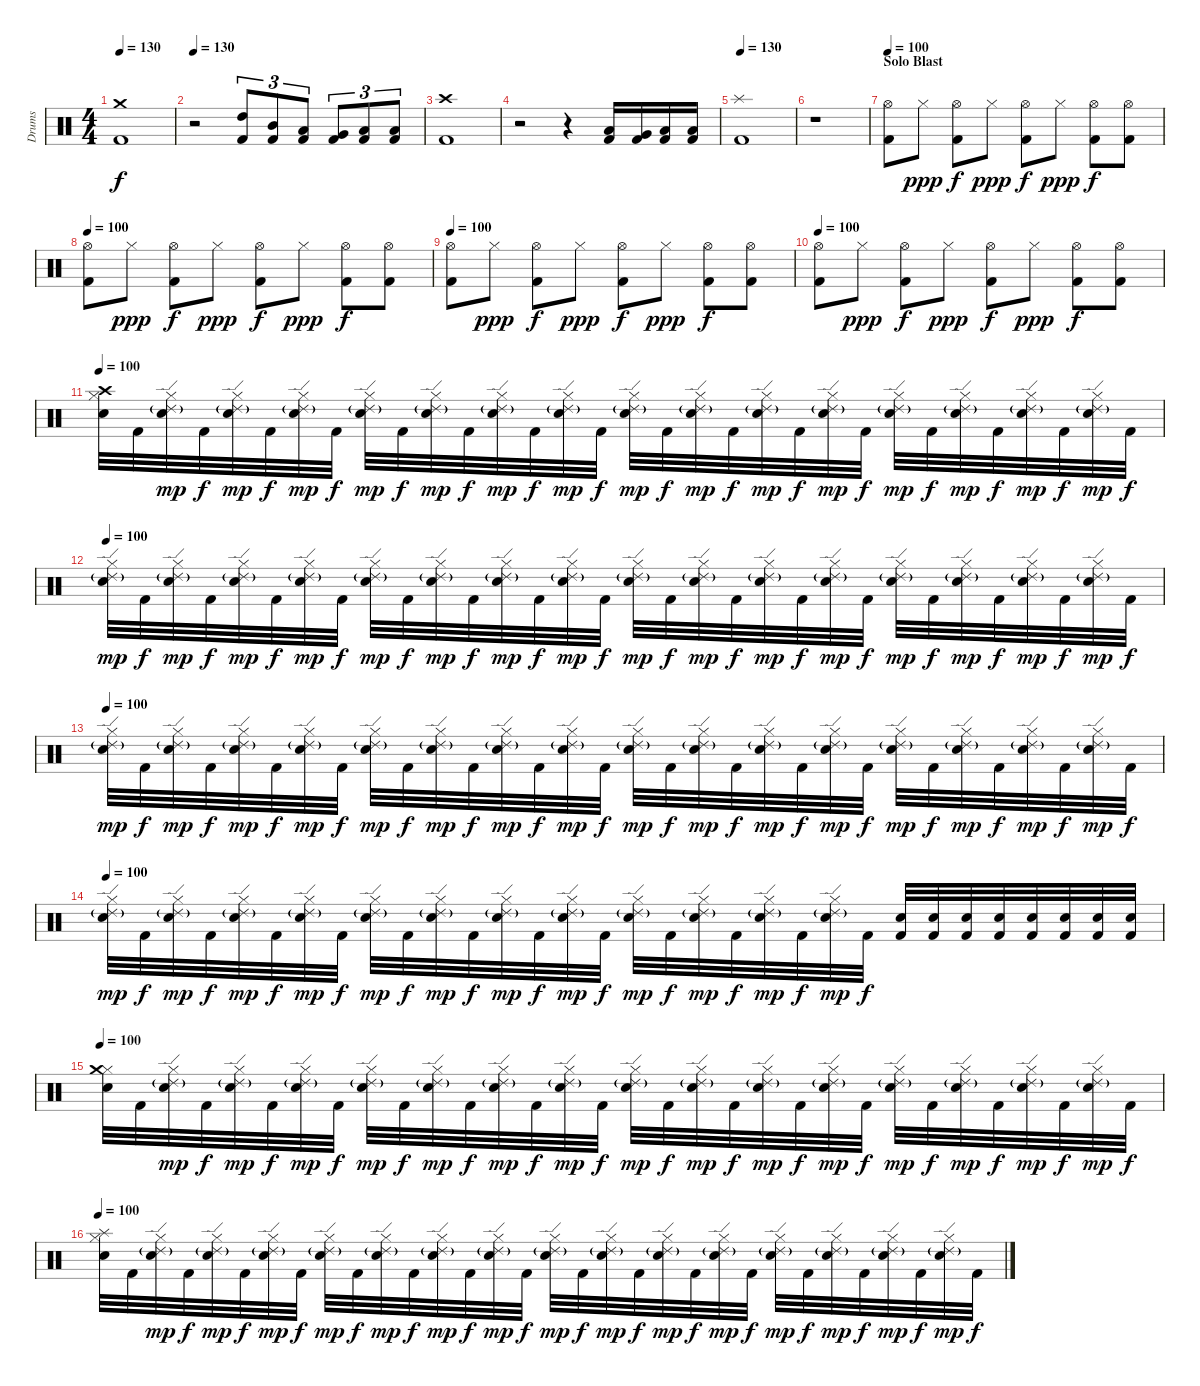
\track ("Drums" "Drums") {instrument percussion}
\staff {score}
\articulation defaults
\ts (4 4)
\tempo 130
\clef neutral
\ks c
("Kick (hit) 2" "Crash medium (hit)").1{dy f} |
\tempo 130
r.2 ("Kick (hit) 2" "High Tom (hit)").8{tu (3 2)} ("Kick (hit) 2" "Mid Tom (hit)").8{tu (3 2)} ("Kick (hit) 2" "Low Tom (hit)").8{tu (3 2)} ("Kick (hit) 2" "Very Low Tom (hit)").8{tu (3 2)} ("Kick (hit) 2" "Low Floor Tom (hit)").8{tu (3 2)} ("Kick (hit) 2" "Low Floor Tom (hit)").8{tu (3 2)} |
("Kick (hit) 2" "Crash high (hit)").1 |
r.2 r.4 ("Kick (hit) 2" "Low Tom (hit)").16 ("Kick (hit) 2" "Very Low Tom (hit)").16 ("Kick (hit) 2" "Low Floor Tom (hit)").16 ("Kick (hit) 2" "Low Floor Tom (hit)").16 |
\tempo 130
("Kick (hit) 2" "Splash (hit)").1 |
r.1 |
\section ("" "Solo Blast")
\tempo 100
("Kick (hit) 2" "Hi-Hat (open)").8 "Hi-Hat (closed)".8{dy ppp} ("Kick (hit) 2" "Hi-Hat (open)").8{dy f} "Hi-Hat (closed)".8{dy ppp} ("Kick (hit) 2" "Hi-Hat (open)").8{dy f} "Hi-Hat (closed)".8{dy ppp} ("Kick (hit) 2" "Hi-Hat (open)").8{dy f} ("Kick (hit) 2" "Hi-Hat (open)").8 |
\tempo 100
("Kick (hit) 2" "Hi-Hat (open)").8 "Hi-Hat (closed)".8{dy ppp} ("Kick (hit) 2" "Hi-Hat (open)").8{dy f} "Hi-Hat (closed)".8{dy ppp} ("Kick (hit) 2" "Hi-Hat (open)").8{dy f} "Hi-Hat (closed)".8{dy ppp} ("Kick (hit) 2" "Hi-Hat (open)").8{dy f} ("Kick (hit) 2" "Hi-Hat (open)").8 |
\tempo 100
("Kick (hit) 2" "Hi-Hat (open)").8 "Hi-Hat (closed)".8{dy ppp} ("Kick (hit) 2" "Hi-Hat (open)").8{dy f} "Hi-Hat (closed)".8{dy ppp} ("Kick (hit) 2" "Hi-Hat (open)").8{dy f} "Hi-Hat (closed)".8{dy ppp} ("Kick (hit) 2" "Hi-Hat (open)").8{dy f} ("Kick (hit) 2" "Hi-Hat (open)").8 |
\tempo 100
("Kick (hit) 2" "Hi-Hat (open)").8 "Hi-Hat (closed)".8{dy ppp} ("Kick (hit) 2" "Hi-Hat (open)").8{dy f} "Hi-Hat (closed)".8{dy ppp} ("Kick (hit) 2" "Hi-Hat (open)").8{dy f} "Hi-Hat (closed)".8{dy ppp} ("Kick (hit) 2" "Hi-Hat (open)").8{dy f} ("Kick (hit) 2" "Hi-Hat (open)").8 |
\section ("" "")
\tempo 100
("Snare (hit) 2" "Hi-Hat (closed)" "Crash high (hit)").32 "Kick (hit) 2".32 ("Snare (hit) 2" "Hi-Hat (closed)" "Ride (edge) 2"{g}).32{dy mp} "Kick (hit) 2".32{dy f} ("Snare (hit) 2" "Hi-Hat (closed)" "Ride (edge) 2"{g}).32{dy mp} "Kick (hit) 2".32{dy f} ("Snare (hit) 2" "Hi-Hat (closed)" "Ride (edge) 2"{g}).32{dy mp} "Kick (hit) 2".32{dy f} ("Snare (hit) 2" "Hi-Hat (closed)" "Ride (edge) 2"{g}).32{dy mp} "Kick (hit) 2".32{dy f} ("Snare (hit) 2" "Hi-Hat (closed)" "Ride (edge) 2"{g}).32{dy mp} "Kick (hit) 2".32{dy f} ("Snare (hit) 2" "Hi-Hat (closed)" "Ride (edge) 2"{g}).32{dy mp} "Kick (hit) 2".32{dy f} ("Snare (hit) 2" "Hi-Hat (closed)" "Ride (edge) 2"{g}).32{dy mp} "Kick (hit) 2".32{dy f} ("Snare (hit) 2" "Hi-Hat (closed)" "Ride (edge) 2"{g}).32{dy mp} "Kick (hit) 2".32{dy f} ("Snare (hit) 2" "Hi-Hat (closed)" "Ride (edge) 2"{g}).32{dy mp} "Kick (hit) 2".32{dy f} ("Snare (hit) 2" "Hi-Hat (closed)" "Ride (edge) 2"{g}).32{dy mp} "Kick (hit) 2".32{dy f} ("Snare (hit) 2" "Hi-Hat (closed)" "Ride (edge) 2"{g}).32{dy mp} "Kick (hit) 2".32{dy f} ("Snare (hit) 2" "Hi-Hat (closed)" "Ride (edge) 2"{g}).32{dy mp} "Kick (hit) 2".32{dy f} ("Snare (hit) 2" "Hi-Hat (closed)" "Ride (edge) 2"{g}).32{dy mp} "Kick (hit) 2".32{dy f} ("Snare (hit) 2" "Hi-Hat (closed)" "Ride (edge) 2"{g}).32{dy mp} "Kick (hit) 2".32{dy f} ("Snare (hit) 2" "Hi-Hat (closed)" "Ride (edge) 2"{g}).32{dy mp} "Kick (hit) 2".32{dy f} |
\tempo 100
("Snare (hit) 2" "Hi-Hat (closed)" "Ride (edge) 2"{g}).32{dy mp} "Kick (hit) 2".32{dy f} ("Snare (hit) 2" "Hi-Hat (closed)" "Ride (edge) 2"{g}).32{dy mp} "Kick (hit) 2".32{dy f} ("Snare (hit) 2" "Hi-Hat (closed)" "Ride (edge) 2"{g}).32{dy mp} "Kick (hit) 2".32{dy f} ("Snare (hit) 2" "Hi-Hat (closed)" "Ride (edge) 2"{g}).32{dy mp} "Kick (hit) 2".32{dy f} ("Snare (hit) 2" "Hi-Hat (closed)" "Ride (edge) 2"{g}).32{dy mp} "Kick (hit) 2".32{dy f} ("Snare (hit) 2" "Hi-Hat (closed)" "Ride (edge) 2"{g}).32{dy mp} "Kick (hit) 2".32{dy f} ("Snare (hit) 2" "Hi-Hat (closed)" "Ride (edge) 2"{g}).32{dy mp} "Kick (hit) 2".32{dy f} ("Snare (hit) 2" "Hi-Hat (closed)" "Ride (edge) 2"{g}).32{dy mp} "Kick (hit) 2".32{dy f} ("Snare (hit) 2" "Hi-Hat (closed)" "Ride (edge) 2"{g}).32{dy mp} "Kick (hit) 2".32{dy f} ("Snare (hit) 2" "Hi-Hat (closed)" "Ride (edge) 2"{g}).32{dy mp} "Kick (hit) 2".32{dy f} ("Snare (hit) 2" "Hi-Hat (closed)" "Ride (edge) 2"{g}).32{dy mp} "Kick (hit) 2".32{dy f} ("Snare (hit) 2" "Hi-Hat (closed)" "Ride (edge) 2"{g}).32{dy mp} "Kick (hit) 2".32{dy f} ("Snare (hit) 2" "Hi-Hat (closed)" "Ride (edge) 2"{g}).32{dy mp} "Kick (hit) 2".32{dy f} ("Snare (hit) 2" "Hi-Hat (closed)" "Ride (edge) 2"{g}).32{dy mp} "Kick (hit) 2".32{dy f} ("Snare (hit) 2" "Hi-Hat (closed)" "Ride (edge) 2"{g}).32{dy mp} "Kick (hit) 2".32{dy f} ("Snare (hit) 2" "Hi-Hat (closed)" "Ride (edge) 2"{g}).32{dy mp} "Kick (hit) 2".32{dy f} |
\tempo 100
("Snare (hit) 2" "Hi-Hat (closed)" "Ride (edge) 2"{g}).32{dy mp} "Kick (hit) 2".32{dy f} ("Snare (hit) 2" "Hi-Hat (closed)" "Ride (edge) 2"{g}).32{dy mp} "Kick (hit) 2".32{dy f} ("Snare (hit) 2" "Hi-Hat (closed)" "Ride (edge) 2"{g}).32{dy mp} "Kick (hit) 2".32{dy f} ("Snare (hit) 2" "Hi-Hat (closed)" "Ride (edge) 2"{g}).32{dy mp} "Kick (hit) 2".32{dy f} ("Snare (hit) 2" "Hi-Hat (closed)" "Ride (edge) 2"{g}).32{dy mp} "Kick (hit) 2".32{dy f} ("Snare (hit) 2" "Hi-Hat (closed)" "Ride (edge) 2"{g}).32{dy mp} "Kick (hit) 2".32{dy f} ("Snare (hit) 2" "Hi-Hat (closed)" "Ride (edge) 2"{g}).32{dy mp} "Kick (hit) 2".32{dy f} ("Snare (hit) 2" "Hi-Hat (closed)" "Ride (edge) 2"{g}).32{dy mp} "Kick (hit) 2".32{dy f} ("Snare (hit) 2" "Hi-Hat (closed)" "Ride (edge) 2"{g}).32{dy mp} "Kick (hit) 2".32{dy f} ("Snare (hit) 2" "Hi-Hat (closed)" "Ride (edge) 2"{g}).32{dy mp} "Kick (hit) 2".32{dy f} ("Snare (hit) 2" "Hi-Hat (closed)" "Ride (edge) 2"{g}).32{dy mp} "Kick (hit) 2".32{dy f} ("Snare (hit) 2" "Hi-Hat (closed)" "Ride (edge) 2"{g}).32{dy mp} "Kick (hit) 2".32{dy f} ("Snare (hit) 2" "Hi-Hat (closed)" "Ride (edge) 2"{g}).32{dy mp} "Kick (hit) 2".32{dy f} ("Snare (hit) 2" "Hi-Hat (closed)" "Ride (edge) 2"{g}).32{dy mp} "Kick (hit) 2".32{dy f} ("Snare (hit) 2" "Hi-Hat (closed)" "Ride (edge) 2"{g}).32{dy mp} "Kick (hit) 2".32{dy f} ("Snare (hit) 2" "Hi-Hat (closed)" "Ride (edge) 2"{g}).32{dy mp} "Kick (hit) 2".32{dy f} |
\tempo 100
("Snare (hit) 2" "Hi-Hat (closed)" "Ride (edge) 2"{g}).32{dy mp} "Kick (hit) 2".32{dy f} ("Snare (hit) 2" "Hi-Hat (closed)" "Ride (edge) 2"{g}).32{dy mp} "Kick (hit) 2".32{dy f} ("Snare (hit) 2" "Hi-Hat (closed)" "Ride (edge) 2"{g}).32{dy mp} "Kick (hit) 2".32{dy f} ("Snare (hit) 2" "Hi-Hat (closed)" "Ride (edge) 2"{g}).32{dy mp} "Kick (hit) 2".32{dy f} ("Snare (hit) 2" "Hi-Hat (closed)" "Ride (edge) 2"{g}).32{dy mp} "Kick (hit) 2".32{dy f} ("Snare (hit) 2" "Hi-Hat (closed)" "Ride (edge) 2"{g}).32{dy mp} "Kick (hit) 2".32{dy f} ("Snare (hit) 2" "Hi-Hat (closed)" "Ride (edge) 2"{g}).32{dy mp} "Kick (hit) 2".32{dy f} ("Snare (hit) 2" "Hi-Hat (closed)" "Ride (edge) 2"{g}).32{dy mp} "Kick (hit) 2".32{dy f} ("Snare (hit) 2" "Hi-Hat (closed)" "Ride (edge) 2"{g}).32{dy mp} "Kick (hit) 2".32{dy f} ("Snare (hit) 2" "Hi-Hat (closed)" "Ride (edge) 2"{g}).32{dy mp} "Kick (hit) 2".32{dy f} ("Snare (hit) 2" "Hi-Hat (closed)" "Ride (edge) 2"{g}).32{dy mp} "Kick (hit) 2".32{dy f} ("Snare (hit) 2" "Hi-Hat (closed)" "Ride (edge) 2"{g}).32{dy mp} "Kick (hit) 2".32{dy f} ("Kick (hit) 2" "Snare (hit) 2").32 ("Kick (hit) 2" "Snare (hit) 2").32 ("Kick (hit) 2" "Snare (hit) 2").32 ("Kick (hit) 2" "Snare (hit) 2").32 ("Kick (hit) 2" "Snare (hit) 2").32 ("Kick (hit) 2" "Snare (hit) 2").32 ("Kick (hit) 2" "Snare (hit) 2").32 ("Kick (hit) 2" "Snare (hit) 2").32 |
\section ("" "")
\tempo 100
("Snare (hit) 2" "Hi-Hat (closed)" "Crash medium (hit)").32 "Kick (hit) 2".32 ("Snare (hit) 2" "Hi-Hat (closed)" "Ride (edge) 2"{g}).32{dy mp} "Kick (hit) 2".32{dy f} ("Snare (hit) 2" "Hi-Hat (closed)" "Ride (edge) 2"{g}).32{dy mp} "Kick (hit) 2".32{dy f} ("Snare (hit) 2" "Hi-Hat (closed)" "Ride (edge) 2"{g}).32{dy mp} "Kick (hit) 2".32{dy f} ("Snare (hit) 2" "Hi-Hat (closed)" "Ride (edge) 2"{g}).32{dy mp} "Kick (hit) 2".32{dy f} ("Snare (hit) 2" "Hi-Hat (closed)" "Ride (edge) 2"{g}).32{dy mp} "Kick (hit) 2".32{dy f} ("Snare (hit) 2" "Hi-Hat (closed)" "Ride (edge) 2"{g}).32{dy mp} "Kick (hit) 2".32{dy f} ("Snare (hit) 2" "Hi-Hat (closed)" "Ride (edge) 2"{g}).32{dy mp} "Kick (hit) 2".32{dy f} ("Snare (hit) 2" "Hi-Hat (closed)" "Ride (edge) 2"{g}).32{dy mp} "Kick (hit) 2".32{dy f} ("Snare (hit) 2" "Hi-Hat (closed)" "Ride (edge) 2"{g}).32{dy mp} "Kick (hit) 2".32{dy f} ("Snare (hit) 2" "Hi-Hat (closed)" "Ride (edge) 2"{g}).32{dy mp} "Kick (hit) 2".32{dy f} ("Snare (hit) 2" "Hi-Hat (closed)" "Ride (edge) 2"{g}).32{dy mp} "Kick (hit) 2".32{dy f} ("Snare (hit) 2" "Hi-Hat (closed)" "Ride (edge) 2"{g}).32{dy mp} "Kick (hit) 2".32{dy f} ("Snare (hit) 2" "Hi-Hat (closed)" "Ride (edge) 2"{g}).32{dy mp} "Kick (hit) 2".32{dy f} ("Snare (hit) 2" "Hi-Hat (closed)" "Ride (edge) 2"{g}).32{dy mp} "Kick (hit) 2".32{dy f} ("Snare (hit) 2" "Hi-Hat (closed)" "Ride (edge) 2"{g}).32{dy mp} "Kick (hit) 2".32{dy f} |
\tempo 100
("Snare (hit) 2" "Hi-Hat (closed)" "Splash (hit)").32 "Kick (hit) 2".32 ("Snare (hit) 2" "Hi-Hat (closed)" "Ride (edge) 2"{g}).32{dy mp} "Kick (hit) 2".32{dy f} ("Snare (hit) 2" "Hi-Hat (closed)" "Ride (edge) 2"{g}).32{dy mp} "Kick (hit) 2".32{dy f} ("Snare (hit) 2" "Hi-Hat (closed)" "Ride (edge) 2"{g}).32{dy mp} "Kick (hit) 2".32{dy f} ("Snare (hit) 2" "Hi-Hat (closed)" "Ride (edge) 2"{g}).32{dy mp} "Kick (hit) 2".32{dy f} ("Snare (hit) 2" "Hi-Hat (closed)" "Ride (edge) 2"{g}).32{dy mp} "Kick (hit) 2".32{dy f} ("Snare (hit) 2" "Hi-Hat (closed)" "Ride (edge) 2"{g}).32{dy mp} "Kick (hit) 2".32{dy f} ("Snare (hit) 2" "Hi-Hat (closed)" "Ride (edge) 2"{g}).32{dy mp} "Kick (hit) 2".32{dy f} ("Snare (hit) 2" "Hi-Hat (closed)" "Ride (edge) 2"{g}).32{dy mp} "Kick (hit) 2".32{dy f} ("Snare (hit) 2" "Hi-Hat (closed)" "Ride (edge) 2"{g}).32{dy mp} "Kick (hit) 2".32{dy f} ("Snare (hit) 2" "Hi-Hat (closed)" "Ride (edge) 2"{g}).32{dy mp} "Kick (hit) 2".32{dy f} ("Snare (hit) 2" "Hi-Hat (closed)" "Ride (edge) 2"{g}).32{dy mp} "Kick (hit) 2".32{dy f} ("Snare (hit) 2" "Hi-Hat (closed)" "Ride (edge) 2"{g}).32{dy mp} "Kick (hit) 2".32{dy f} ("Snare (hit) 2" "Hi-Hat (closed)" "Ride (edge) 2"{g}).32{dy mp} "Kick (hit) 2".32{dy f} ("Snare (hit) 2" "Hi-Hat (closed)" "Ride (edge) 2"{g}).32{dy mp} "Kick (hit) 2".32{dy f} ("Snare (hit) 2" "Hi-Hat (closed)" "Ride (edge) 2"{g}).32{dy mp} "Kick (hit) 2".32{dy f}
